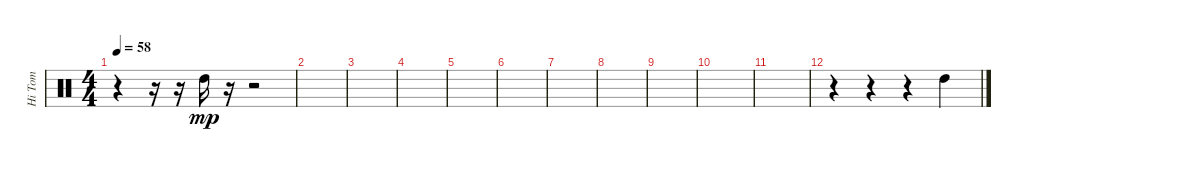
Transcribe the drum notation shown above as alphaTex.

\track ("Hi Tom" "Hi Tom") {instrument percussion}
\staff {score}
\articulation defaults
\ts (4 4)
\tempo 58
\clef neutral
\ks c
r.4{dy pp} r.16 r.16 "High Tom (hit)".16{dy mp} r.16 r.2 |
|
|
|
|
|
|
|
|
|
|
r.4 r.4 r.4 "High Tom (hit)".4
